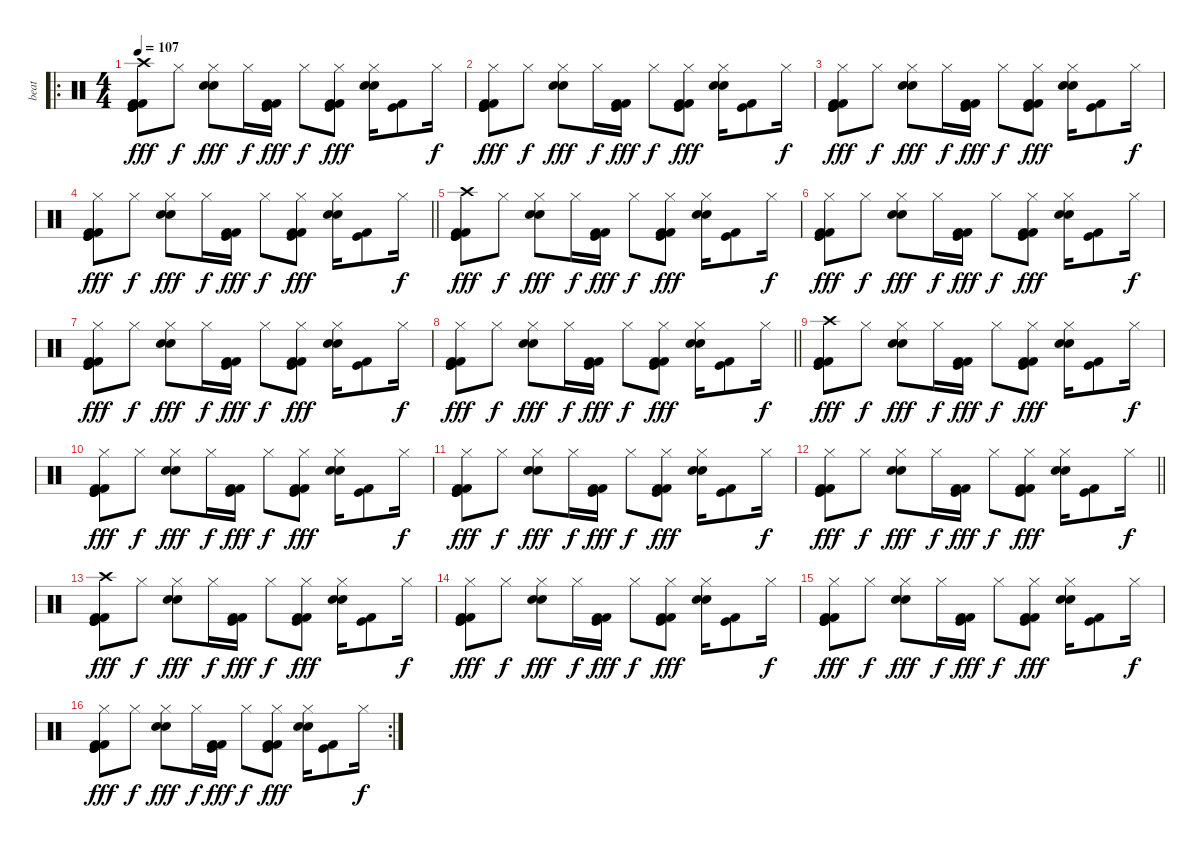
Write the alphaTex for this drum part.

\track ("beat" "beat") {instrument percussion}
\staff {score}
\articulation defaults
\ro
\ts (4 4)
\tempo 107
\clef neutral
\ks c
("Kick (hit)" "Kick (hit)" "Kick (hit) 2" "Kick (hit) 2" "Crash high (hit)").8{dy fff} "Hi-Hat (closed)".8{dy f} ("Snare (hit) 2" "Electric Snare (hit)" "Hi-Hat (closed)").8{dy fff} "Hi-Hat (closed)".16{dy f} ("Kick (hit)" "Kick (hit) 2" "Kick (hit) 2").16{dy fff} "Hi-Hat (closed)".8{dy f} ("Kick (hit)" "Kick (hit) 2" "Kick (hit) 2" "Hi-Hat (closed)").8{dy fff} ("Snare (hit) 2" "Electric Snare (hit)" "Hi-Hat (closed)").16 ("Kick (hit)" "Kick (hit) 2").8 "Hi-Hat (closed)".16{dy f} |
("Kick (hit)" "Kick (hit)" "Kick (hit) 2" "Kick (hit) 2" "Hi-Hat (closed)").8{dy fff} "Hi-Hat (closed)".8{dy f} ("Snare (hit) 2" "Electric Snare (hit)" "Hi-Hat (closed)").8{dy fff} "Hi-Hat (closed)".16{dy f} ("Kick (hit)" "Kick (hit) 2" "Kick (hit) 2").16{dy fff} "Hi-Hat (closed)".8{dy f} ("Kick (hit)" "Kick (hit) 2" "Kick (hit) 2" "Hi-Hat (closed)").8{dy fff} ("Snare (hit) 2" "Electric Snare (hit)" "Hi-Hat (closed)").16 ("Kick (hit)" "Kick (hit) 2").8 "Hi-Hat (closed)".16{dy f} |
("Kick (hit)" "Kick (hit)" "Kick (hit) 2" "Kick (hit) 2" "Hi-Hat (closed)").8{dy fff} "Hi-Hat (closed)".8{dy f} ("Snare (hit) 2" "Electric Snare (hit)" "Hi-Hat (closed)").8{dy fff} "Hi-Hat (closed)".16{dy f} ("Kick (hit)" "Kick (hit) 2" "Kick (hit) 2").16{dy fff} "Hi-Hat (closed)".8{dy f} ("Kick (hit)" "Kick (hit) 2" "Kick (hit) 2" "Hi-Hat (closed)").8{dy fff} ("Snare (hit) 2" "Electric Snare (hit)" "Hi-Hat (closed)").16 ("Kick (hit)" "Kick (hit) 2").8 "Hi-Hat (closed)".16{dy f} |
\barLineRight lightlight
("Kick (hit)" "Kick (hit)" "Kick (hit) 2" "Kick (hit) 2" "Hi-Hat (closed)").8{dy fff} "Hi-Hat (closed)".8{dy f} ("Snare (hit) 2" "Electric Snare (hit)" "Hi-Hat (closed)").8{dy fff} "Hi-Hat (closed)".16{dy f} ("Kick (hit)" "Kick (hit) 2" "Kick (hit) 2").16{dy fff} "Hi-Hat (closed)".8{dy f} ("Kick (hit)" "Kick (hit) 2" "Kick (hit) 2" "Hi-Hat (closed)").8{dy fff} ("Snare (hit) 2" "Electric Snare (hit)" "Hi-Hat (closed)").16 ("Kick (hit)" "Kick (hit) 2").8 "Hi-Hat (closed)".16{dy f} |
("Kick (hit)" "Kick (hit)" "Kick (hit) 2" "Kick (hit) 2" "Crash high (hit)").8{dy fff} "Hi-Hat (closed)".8{dy f} ("Snare (hit) 2" "Electric Snare (hit)" "Hi-Hat (closed)").8{dy fff} "Hi-Hat (closed)".16{dy f} ("Kick (hit)" "Kick (hit) 2" "Kick (hit) 2").16{dy fff} "Hi-Hat (closed)".8{dy f} ("Kick (hit)" "Kick (hit) 2" "Kick (hit) 2" "Hi-Hat (closed)").8{dy fff} ("Snare (hit) 2" "Electric Snare (hit)" "Hi-Hat (closed)").16 ("Kick (hit)" "Kick (hit) 2").8 "Hi-Hat (closed)".16{dy f} |
("Kick (hit)" "Kick (hit)" "Kick (hit) 2" "Kick (hit) 2" "Hi-Hat (closed)").8{dy fff} "Hi-Hat (closed)".8{dy f} ("Snare (hit) 2" "Electric Snare (hit)" "Hi-Hat (closed)").8{dy fff} "Hi-Hat (closed)".16{dy f} ("Kick (hit)" "Kick (hit) 2" "Kick (hit) 2").16{dy fff} "Hi-Hat (closed)".8{dy f} ("Kick (hit)" "Kick (hit) 2" "Kick (hit) 2" "Hi-Hat (closed)").8{dy fff} ("Snare (hit) 2" "Electric Snare (hit)" "Hi-Hat (closed)").16 ("Kick (hit)" "Kick (hit) 2").8 "Hi-Hat (closed)".16{dy f} |
("Kick (hit)" "Kick (hit)" "Kick (hit) 2" "Kick (hit) 2" "Hi-Hat (closed)").8{dy fff} "Hi-Hat (closed)".8{dy f} ("Snare (hit) 2" "Electric Snare (hit)" "Hi-Hat (closed)").8{dy fff} "Hi-Hat (closed)".16{dy f} ("Kick (hit)" "Kick (hit) 2" "Kick (hit) 2").16{dy fff} "Hi-Hat (closed)".8{dy f} ("Kick (hit)" "Kick (hit) 2" "Kick (hit) 2" "Hi-Hat (closed)").8{dy fff} ("Snare (hit) 2" "Electric Snare (hit)" "Hi-Hat (closed)").16 ("Kick (hit)" "Kick (hit) 2").8 "Hi-Hat (closed)".16{dy f} |
\barLineRight lightlight
("Kick (hit)" "Kick (hit)" "Kick (hit) 2" "Kick (hit) 2" "Hi-Hat (closed)").8{dy fff} "Hi-Hat (closed)".8{dy f} ("Snare (hit) 2" "Electric Snare (hit)" "Hi-Hat (closed)").8{dy fff} "Hi-Hat (closed)".16{dy f} ("Kick (hit)" "Kick (hit) 2" "Kick (hit) 2").16{dy fff} "Hi-Hat (closed)".8{dy f} ("Kick (hit)" "Kick (hit) 2" "Kick (hit) 2" "Hi-Hat (closed)").8{dy fff} ("Snare (hit) 2" "Electric Snare (hit)" "Hi-Hat (closed)").16 ("Kick (hit)" "Kick (hit) 2").8 "Hi-Hat (closed)".16{dy f} |
("Kick (hit)" "Kick (hit)" "Kick (hit) 2" "Kick (hit) 2" "Crash high (hit)").8{dy fff} "Hi-Hat (closed)".8{dy f} ("Snare (hit) 2" "Electric Snare (hit)" "Hi-Hat (closed)").8{dy fff} "Hi-Hat (closed)".16{dy f} ("Kick (hit)" "Kick (hit) 2" "Kick (hit) 2").16{dy fff} "Hi-Hat (closed)".8{dy f} ("Kick (hit)" "Kick (hit) 2" "Kick (hit) 2" "Hi-Hat (closed)").8{dy fff} ("Snare (hit) 2" "Electric Snare (hit)" "Hi-Hat (closed)").16 ("Kick (hit)" "Kick (hit) 2").8 "Hi-Hat (closed)".16{dy f} |
("Kick (hit)" "Kick (hit)" "Kick (hit) 2" "Kick (hit) 2" "Hi-Hat (closed)").8{dy fff} "Hi-Hat (closed)".8{dy f} ("Snare (hit) 2" "Electric Snare (hit)" "Hi-Hat (closed)").8{dy fff} "Hi-Hat (closed)".16{dy f} ("Kick (hit)" "Kick (hit) 2" "Kick (hit) 2").16{dy fff} "Hi-Hat (closed)".8{dy f} ("Kick (hit)" "Kick (hit) 2" "Kick (hit) 2" "Hi-Hat (closed)").8{dy fff} ("Snare (hit) 2" "Electric Snare (hit)" "Hi-Hat (closed)").16 ("Kick (hit)" "Kick (hit) 2").8 "Hi-Hat (closed)".16{dy f} |
("Kick (hit)" "Kick (hit)" "Kick (hit) 2" "Kick (hit) 2" "Hi-Hat (closed)").8{dy fff} "Hi-Hat (closed)".8{dy f} ("Snare (hit) 2" "Electric Snare (hit)" "Hi-Hat (closed)").8{dy fff} "Hi-Hat (closed)".16{dy f} ("Kick (hit)" "Kick (hit) 2" "Kick (hit) 2").16{dy fff} "Hi-Hat (closed)".8{dy f} ("Kick (hit)" "Kick (hit) 2" "Kick (hit) 2" "Hi-Hat (closed)").8{dy fff} ("Snare (hit) 2" "Electric Snare (hit)" "Hi-Hat (closed)").16 ("Kick (hit)" "Kick (hit) 2").8 "Hi-Hat (closed)".16{dy f} |
\barLineRight lightlight
("Kick (hit)" "Kick (hit)" "Kick (hit) 2" "Kick (hit) 2" "Hi-Hat (closed)").8{dy fff} "Hi-Hat (closed)".8{dy f} ("Snare (hit) 2" "Electric Snare (hit)" "Hi-Hat (closed)").8{dy fff} "Hi-Hat (closed)".16{dy f} ("Kick (hit)" "Kick (hit) 2" "Kick (hit) 2").16{dy fff} "Hi-Hat (closed)".8{dy f} ("Kick (hit)" "Kick (hit) 2" "Kick (hit) 2" "Hi-Hat (closed)").8{dy fff} ("Snare (hit) 2" "Electric Snare (hit)" "Hi-Hat (closed)").16 ("Kick (hit)" "Kick (hit) 2").8 "Hi-Hat (closed)".16{dy f} |
("Kick (hit)" "Kick (hit)" "Kick (hit) 2" "Kick (hit) 2" "Crash high (hit)").8{dy fff} "Hi-Hat (closed)".8{dy f} ("Snare (hit) 2" "Electric Snare (hit)" "Hi-Hat (closed)").8{dy fff} "Hi-Hat (closed)".16{dy f} ("Kick (hit)" "Kick (hit) 2" "Kick (hit) 2").16{dy fff} "Hi-Hat (closed)".8{dy f} ("Kick (hit)" "Kick (hit) 2" "Kick (hit) 2" "Hi-Hat (closed)").8{dy fff} ("Snare (hit) 2" "Electric Snare (hit)" "Hi-Hat (closed)").16 ("Kick (hit)" "Kick (hit) 2").8 "Hi-Hat (closed)".16{dy f} |
("Kick (hit)" "Kick (hit)" "Kick (hit) 2" "Kick (hit) 2" "Hi-Hat (closed)").8{dy fff} "Hi-Hat (closed)".8{dy f} ("Snare (hit) 2" "Electric Snare (hit)" "Hi-Hat (closed)").8{dy fff} "Hi-Hat (closed)".16{dy f} ("Kick (hit)" "Kick (hit) 2" "Kick (hit) 2").16{dy fff} "Hi-Hat (closed)".8{dy f} ("Kick (hit)" "Kick (hit) 2" "Kick (hit) 2" "Hi-Hat (closed)").8{dy fff} ("Snare (hit) 2" "Electric Snare (hit)" "Hi-Hat (closed)").16 ("Kick (hit)" "Kick (hit) 2").8 "Hi-Hat (closed)".16{dy f} |
("Kick (hit)" "Kick (hit)" "Kick (hit) 2" "Kick (hit) 2" "Hi-Hat (closed)").8{dy fff} "Hi-Hat (closed)".8{dy f} ("Snare (hit) 2" "Electric Snare (hit)" "Hi-Hat (closed)").8{dy fff} "Hi-Hat (closed)".16{dy f} ("Kick (hit)" "Kick (hit) 2" "Kick (hit) 2").16{dy fff} "Hi-Hat (closed)".8{dy f} ("Kick (hit)" "Kick (hit) 2" "Kick (hit) 2" "Hi-Hat (closed)").8{dy fff} ("Snare (hit) 2" "Electric Snare (hit)" "Hi-Hat (closed)").16 ("Kick (hit)" "Kick (hit) 2").8 "Hi-Hat (closed)".16{dy f} |
\rc 2
("Kick (hit)" "Kick (hit)" "Kick (hit) 2" "Kick (hit) 2" "Hi-Hat (closed)").8{dy fff} "Hi-Hat (closed)".8{dy f} ("Snare (hit) 2" "Electric Snare (hit)" "Hi-Hat (closed)").8{dy fff} "Hi-Hat (closed)".16{dy f} ("Kick (hit)" "Kick (hit) 2" "Kick (hit) 2").16{dy fff} "Hi-Hat (closed)".8{dy f} ("Kick (hit)" "Kick (hit) 2" "Kick (hit) 2" "Hi-Hat (closed)").8{dy fff} ("Snare (hit) 2" "Electric Snare (hit)" "Hi-Hat (closed)").16 ("Kick (hit)" "Kick (hit) 2").8 "Hi-Hat (closed)".16{dy f}
